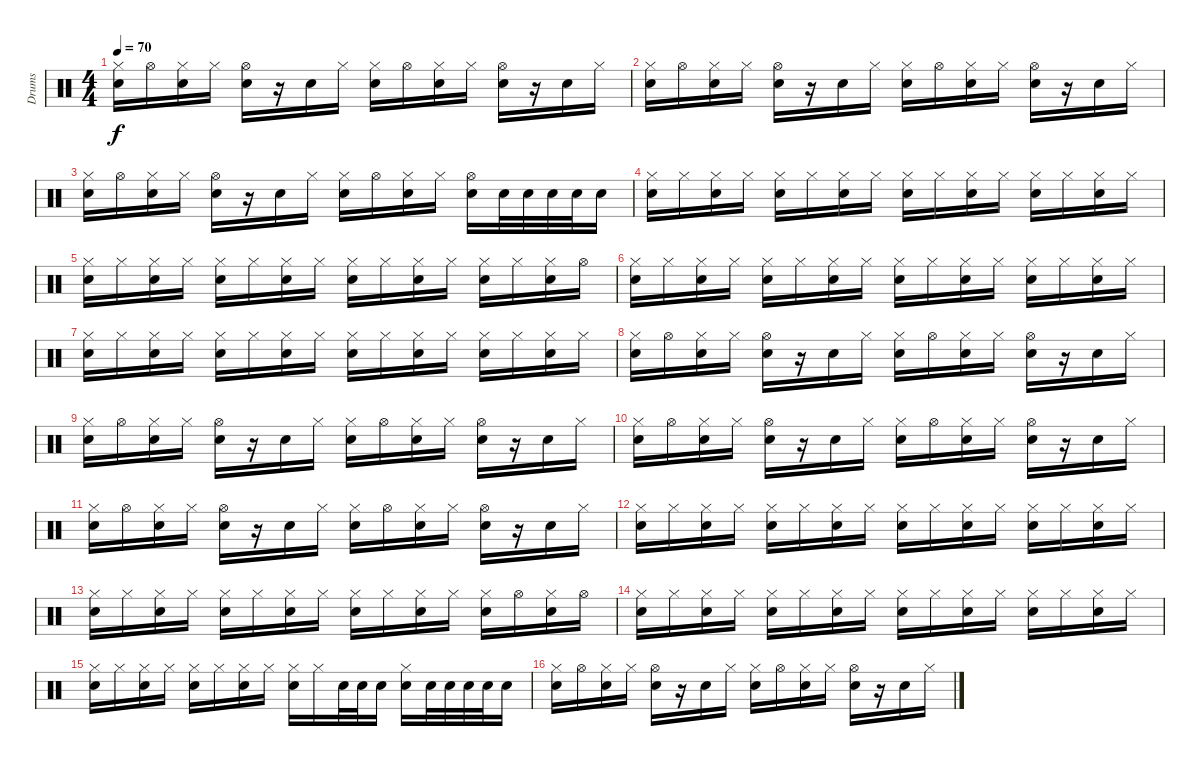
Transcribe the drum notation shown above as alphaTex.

\track ("Drums" "Drums") {instrument percussion}
\staff {score}
\articulation defaults
\ts (4 4)
\tempo 70
\clef neutral
\ks c
("Hi-Hat (closed)" "Electric Snare (hit)").16{dy f} "Hi-Hat (open)".16 ("Hi-Hat (closed)" "Electric Snare (hit)").16 "Hi-Hat (closed)".16 ("Hi-Hat (open)" "Electric Snare (hit)").16 r.16 "Electric Snare (hit)".16 "Hi-Hat (closed)".16 ("Hi-Hat (closed)" "Electric Snare (hit)").16 "Hi-Hat (open)".16 ("Hi-Hat (closed)" "Electric Snare (hit)").16 "Hi-Hat (closed)".16 ("Hi-Hat (open)" "Electric Snare (hit)").16 r.16 "Electric Snare (hit)".16 "Hi-Hat (closed)".16 |
("Hi-Hat (closed)" "Electric Snare (hit)").16 "Hi-Hat (open)".16 ("Hi-Hat (closed)" "Electric Snare (hit)").16 "Hi-Hat (closed)".16 ("Hi-Hat (open)" "Electric Snare (hit)").16 r.16 "Electric Snare (hit)".16 "Hi-Hat (closed)".16 ("Hi-Hat (closed)" "Electric Snare (hit)").16 "Hi-Hat (open)".16 ("Hi-Hat (closed)" "Electric Snare (hit)").16 "Hi-Hat (closed)".16 ("Hi-Hat (open)" "Electric Snare (hit)").16 r.16 "Electric Snare (hit)".16 "Hi-Hat (closed)".16 |
("Hi-Hat (closed)" "Electric Snare (hit)").16 "Hi-Hat (open)".16 ("Hi-Hat (closed)" "Electric Snare (hit)").16 "Hi-Hat (closed)".16 ("Hi-Hat (open)" "Electric Snare (hit)").16 r.16 "Electric Snare (hit)".16 "Hi-Hat (closed)".16 ("Hi-Hat (closed)" "Electric Snare (hit)").16 "Hi-Hat (open)".16 ("Hi-Hat (closed)" "Electric Snare (hit)").16 "Hi-Hat (closed)".16 ("Hi-Hat (open)" "Electric Snare (hit)").16 "Electric Snare (hit)".32 "Electric Snare (hit)".32 "Electric Snare (hit)".32 "Electric Snare (hit)".32 "Electric Snare (hit)".16 |
("Hi-Hat (closed)" "Electric Snare (hit)").16 "Hi-Hat (closed)".16 ("Hi-Hat (closed)" "Electric Snare (hit)").16 "Hi-Hat (closed)".16 ("Hi-Hat (closed)" "Electric Snare (hit)").16 "Hi-Hat (closed)".16 ("Hi-Hat (closed)" "Electric Snare (hit)").16 "Hi-Hat (closed)".16 ("Hi-Hat (closed)" "Electric Snare (hit)").16 "Hi-Hat (closed)".16 ("Hi-Hat (closed)" "Electric Snare (hit)").16 "Hi-Hat (closed)".16 ("Hi-Hat (closed)" "Electric Snare (hit)").16 "Hi-Hat (closed)".16 ("Hi-Hat (closed)" "Electric Snare (hit)").16 "Hi-Hat (closed)".16 |
("Hi-Hat (closed)" "Electric Snare (hit)").16 "Hi-Hat (closed)".16 ("Hi-Hat (closed)" "Electric Snare (hit)").16 "Hi-Hat (closed)".16 ("Hi-Hat (closed)" "Electric Snare (hit)").16 "Hi-Hat (closed)".16 ("Hi-Hat (closed)" "Electric Snare (hit)").16 "Hi-Hat (closed)".16 ("Hi-Hat (closed)" "Electric Snare (hit)").16 "Hi-Hat (closed)".16 ("Hi-Hat (closed)" "Electric Snare (hit)").16 "Hi-Hat (closed)".16 ("Hi-Hat (closed)" "Electric Snare (hit)").16 "Hi-Hat (closed)".16 ("Hi-Hat (closed)" "Electric Snare (hit)").16 "Hi-Hat (open)".16 |
("Hi-Hat (closed)" "Electric Snare (hit)").16 "Hi-Hat (closed)".16 ("Hi-Hat (closed)" "Electric Snare (hit)").16 "Hi-Hat (closed)".16 ("Hi-Hat (closed)" "Electric Snare (hit)").16 "Hi-Hat (closed)".16 ("Hi-Hat (closed)" "Electric Snare (hit)").16 "Hi-Hat (closed)".16 ("Hi-Hat (closed)" "Electric Snare (hit)").16 "Hi-Hat (closed)".16 ("Hi-Hat (closed)" "Electric Snare (hit)").16 "Hi-Hat (closed)".16 ("Hi-Hat (closed)" "Electric Snare (hit)").16 "Hi-Hat (closed)".16 ("Hi-Hat (closed)" "Electric Snare (hit)").16 "Hi-Hat (closed)".16 |
("Hi-Hat (closed)" "Electric Snare (hit)").16 "Hi-Hat (closed)".16 ("Hi-Hat (closed)" "Electric Snare (hit)").16 "Hi-Hat (closed)".16 ("Hi-Hat (closed)" "Electric Snare (hit)").16 "Hi-Hat (closed)".16 ("Hi-Hat (closed)" "Electric Snare (hit)").16 "Hi-Hat (closed)".16 ("Hi-Hat (closed)" "Electric Snare (hit)").16 "Hi-Hat (closed)".16 ("Hi-Hat (closed)" "Electric Snare (hit)").16 "Hi-Hat (closed)".16 ("Hi-Hat (closed)" "Electric Snare (hit)").16 "Hi-Hat (closed)".16 ("Hi-Hat (closed)" "Electric Snare (hit)").16 "Hi-Hat (closed)".16 |
("Hi-Hat (closed)" "Electric Snare (hit)").16 "Hi-Hat (open)".16 ("Hi-Hat (closed)" "Electric Snare (hit)").16 "Hi-Hat (closed)".16 ("Hi-Hat (open)" "Electric Snare (hit)").16 r.16 "Electric Snare (hit)".16 "Hi-Hat (closed)".16 ("Hi-Hat (closed)" "Electric Snare (hit)").16 "Hi-Hat (open)".16 ("Hi-Hat (closed)" "Electric Snare (hit)").16 "Hi-Hat (closed)".16 ("Hi-Hat (open)" "Electric Snare (hit)").16 r.16 "Electric Snare (hit)".16 "Hi-Hat (closed)".16 |
("Hi-Hat (closed)" "Electric Snare (hit)").16 "Hi-Hat (open)".16 ("Hi-Hat (closed)" "Electric Snare (hit)").16 "Hi-Hat (closed)".16 ("Hi-Hat (open)" "Electric Snare (hit)").16 r.16 "Electric Snare (hit)".16 "Hi-Hat (closed)".16 ("Hi-Hat (closed)" "Electric Snare (hit)").16 "Hi-Hat (open)".16 ("Hi-Hat (closed)" "Electric Snare (hit)").16 "Hi-Hat (closed)".16 ("Hi-Hat (open)" "Electric Snare (hit)").16 r.16 "Electric Snare (hit)".16 "Hi-Hat (closed)".16 |
("Hi-Hat (closed)" "Electric Snare (hit)").16 "Hi-Hat (open)".16 ("Hi-Hat (closed)" "Electric Snare (hit)").16 "Hi-Hat (closed)".16 ("Hi-Hat (open)" "Electric Snare (hit)").16 r.16 "Electric Snare (hit)".16 "Hi-Hat (closed)".16 ("Hi-Hat (closed)" "Electric Snare (hit)").16 "Hi-Hat (open)".16 ("Hi-Hat (closed)" "Electric Snare (hit)").16 "Hi-Hat (closed)".16 ("Hi-Hat (open)" "Electric Snare (hit)").16 r.16 "Electric Snare (hit)".16 "Hi-Hat (closed)".16 |
("Hi-Hat (closed)" "Electric Snare (hit)").16 "Hi-Hat (open)".16 ("Hi-Hat (closed)" "Electric Snare (hit)").16 "Hi-Hat (closed)".16 ("Hi-Hat (open)" "Electric Snare (hit)").16 r.16 "Electric Snare (hit)".16 "Hi-Hat (closed)".16 ("Hi-Hat (closed)" "Electric Snare (hit)").16 "Hi-Hat (open)".16 ("Hi-Hat (closed)" "Electric Snare (hit)").16 "Hi-Hat (closed)".16 ("Hi-Hat (open)" "Electric Snare (hit)").16 r.16 "Electric Snare (hit)".16 "Hi-Hat (closed)".16 |
("Hi-Hat (closed)" "Electric Snare (hit)").16 "Hi-Hat (closed)".16 ("Hi-Hat (closed)" "Electric Snare (hit)").16 "Hi-Hat (closed)".16 ("Hi-Hat (closed)" "Electric Snare (hit)").16 "Hi-Hat (closed)".16 ("Hi-Hat (closed)" "Electric Snare (hit)").16 "Hi-Hat (closed)".16 ("Hi-Hat (closed)" "Electric Snare (hit)").16 "Hi-Hat (closed)".16 ("Hi-Hat (closed)" "Electric Snare (hit)").16 "Hi-Hat (closed)".16 ("Hi-Hat (closed)" "Electric Snare (hit)").16 "Hi-Hat (closed)".16 ("Hi-Hat (closed)" "Electric Snare (hit)").16 "Hi-Hat (closed)".16 |
("Hi-Hat (closed)" "Electric Snare (hit)").16 "Hi-Hat (closed)".16 ("Hi-Hat (closed)" "Electric Snare (hit)").16 "Hi-Hat (closed)".16 ("Hi-Hat (closed)" "Electric Snare (hit)").16 "Hi-Hat (closed)".16 ("Hi-Hat (closed)" "Electric Snare (hit)").16 "Hi-Hat (closed)".16 ("Hi-Hat (closed)" "Electric Snare (hit)").16 "Hi-Hat (closed)".16 ("Hi-Hat (closed)" "Electric Snare (hit)").16 "Hi-Hat (closed)".16 ("Hi-Hat (closed)" "Electric Snare (hit)").16 "Hi-Hat (open)".16 ("Hi-Hat (closed)" "Electric Snare (hit)").16 "Hi-Hat (open)".16 |
("Hi-Hat (closed)" "Electric Snare (hit)").16 "Hi-Hat (closed)".16 ("Hi-Hat (closed)" "Electric Snare (hit)").16 "Hi-Hat (closed)".16 ("Hi-Hat (closed)" "Electric Snare (hit)").16 "Hi-Hat (closed)".16 ("Hi-Hat (closed)" "Electric Snare (hit)").16 "Hi-Hat (closed)".16 ("Hi-Hat (closed)" "Electric Snare (hit)").16 "Hi-Hat (closed)".16 ("Hi-Hat (closed)" "Electric Snare (hit)").16 "Hi-Hat (closed)".16 ("Hi-Hat (closed)" "Electric Snare (hit)").16 "Hi-Hat (closed)".16 ("Hi-Hat (closed)" "Electric Snare (hit)").16 "Hi-Hat (closed)".16 |
("Hi-Hat (closed)" "Electric Snare (hit)").16 "Hi-Hat (closed)".16 ("Hi-Hat (closed)" "Electric Snare (hit)").16 "Hi-Hat (closed)".16 ("Hi-Hat (closed)" "Electric Snare (hit)").16 "Hi-Hat (closed)".16 ("Hi-Hat (closed)" "Electric Snare (hit)").16 "Hi-Hat (closed)".16 ("Hi-Hat (closed)" "Electric Snare (hit)").16 "Hi-Hat (closed)".16 "Electric Snare (hit)".32 "Electric Snare (hit)".32 "Electric Snare (hit)".16 ("Hi-Hat (closed)" "Electric Snare (hit)").16 "Electric Snare (hit)".32 "Electric Snare (hit)".32 "Electric Snare (hit)".32 "Electric Snare (hit)".32 "Electric Snare (hit)".16 |
("Hi-Hat (closed)" "Electric Snare (hit)").16 "Hi-Hat (open)".16 ("Hi-Hat (closed)" "Electric Snare (hit)").16 "Hi-Hat (closed)".16 ("Hi-Hat (open)" "Electric Snare (hit)").16 r.16 "Electric Snare (hit)".16 "Hi-Hat (closed)".16 ("Hi-Hat (closed)" "Electric Snare (hit)").16 "Hi-Hat (open)".16 ("Hi-Hat (closed)" "Electric Snare (hit)").16 "Hi-Hat (closed)".16 ("Hi-Hat (open)" "Electric Snare (hit)").16 r.16 "Electric Snare (hit)".16 "Hi-Hat (closed)".16
